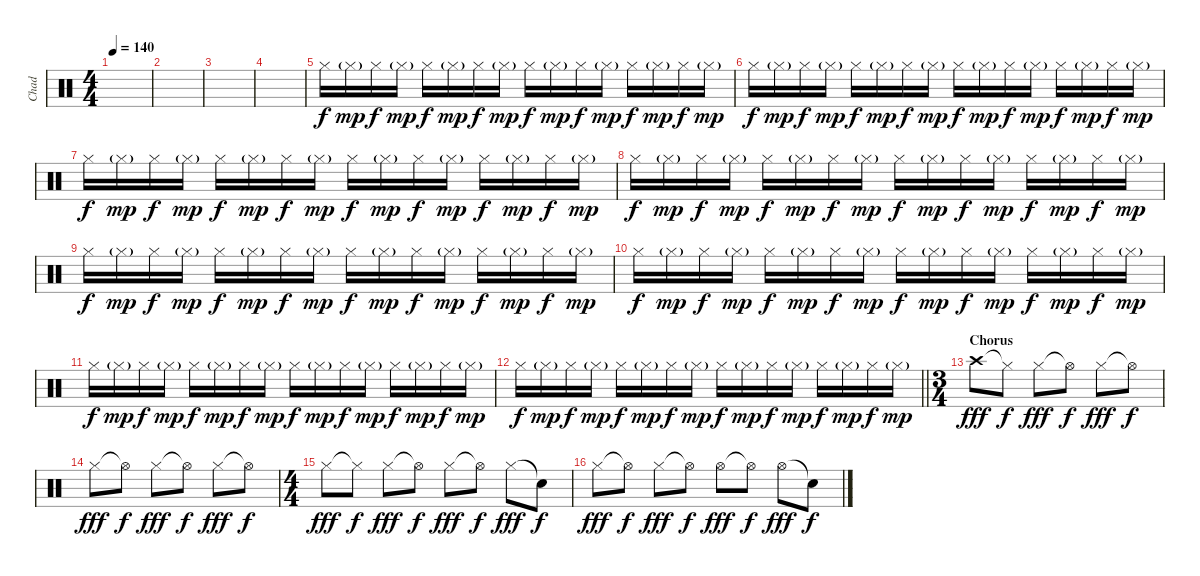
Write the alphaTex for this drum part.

\track ("Chad" "Chad") {instrument percussion}
\staff {score}
\articulation defaults
\ts (4 4)
\tempo 140
\clef neutral
\ks c
|
|
|
|
"Hi-Hat (closed)".16{dy f} "Hi-Hat (closed)"{g}.16{dy mp} "Hi-Hat (closed)".16{dy f} "Hi-Hat (closed)"{g}.16{dy mp} "Hi-Hat (closed)".16{dy f} "Hi-Hat (closed)"{g}.16{dy mp} "Hi-Hat (closed)".16{dy f} "Hi-Hat (closed)"{g}.16{dy mp} "Hi-Hat (closed)".16{dy f} "Hi-Hat (closed)"{g}.16{dy mp} "Hi-Hat (closed)".16{dy f} "Hi-Hat (closed)"{g}.16{dy mp} "Hi-Hat (closed)".16{dy f} "Hi-Hat (closed)"{g}.16{dy mp} "Hi-Hat (closed)".16{dy f} "Hi-Hat (closed)"{g}.16{dy mp} |
"Hi-Hat (closed)".16{dy f} "Hi-Hat (closed)"{g}.16{dy mp} "Hi-Hat (closed)".16{dy f} "Hi-Hat (closed)"{g}.16{dy mp} "Hi-Hat (closed)".16{dy f} "Hi-Hat (closed)"{g}.16{dy mp} "Hi-Hat (closed)".16{dy f} "Hi-Hat (closed)"{g}.16{dy mp} "Hi-Hat (closed)".16{dy f} "Hi-Hat (closed)"{g}.16{dy mp} "Hi-Hat (closed)".16{dy f} "Hi-Hat (closed)"{g}.16{dy mp} "Hi-Hat (closed)".16{dy f} "Hi-Hat (closed)"{g}.16{dy mp} "Hi-Hat (closed)".16{dy f} "Hi-Hat (closed)"{g}.16{dy mp} |
"Hi-Hat (closed)".16{dy f} "Hi-Hat (closed)"{g}.16{dy mp} "Hi-Hat (closed)".16{dy f} "Hi-Hat (closed)"{g}.16{dy mp} "Hi-Hat (closed)".16{dy f} "Hi-Hat (closed)"{g}.16{dy mp} "Hi-Hat (closed)".16{dy f} "Hi-Hat (closed)"{g}.16{dy mp} "Hi-Hat (closed)".16{dy f} "Hi-Hat (closed)"{g}.16{dy mp} "Hi-Hat (closed)".16{dy f} "Hi-Hat (closed)"{g}.16{dy mp} "Hi-Hat (closed)".16{dy f} "Hi-Hat (closed)"{g}.16{dy mp} "Hi-Hat (closed)".16{dy f} "Hi-Hat (closed)"{g}.16{dy mp} |
"Hi-Hat (closed)".16{dy f} "Hi-Hat (closed)"{g}.16{dy mp} "Hi-Hat (closed)".16{dy f} "Hi-Hat (closed)"{g}.16{dy mp} "Hi-Hat (closed)".16{dy f} "Hi-Hat (closed)"{g}.16{dy mp} "Hi-Hat (closed)".16{dy f} "Hi-Hat (closed)"{g}.16{dy mp} "Hi-Hat (closed)".16{dy f} "Hi-Hat (closed)"{g}.16{dy mp} "Hi-Hat (closed)".16{dy f} "Hi-Hat (closed)"{g}.16{dy mp} "Hi-Hat (closed)".16{dy f} "Hi-Hat (closed)"{g}.16{dy mp} "Hi-Hat (closed)".16{dy f} "Hi-Hat (closed)"{g}.16{dy mp} |
"Hi-Hat (closed)".16{dy f} "Hi-Hat (closed)"{g}.16{dy mp} "Hi-Hat (closed)".16{dy f} "Hi-Hat (closed)"{g}.16{dy mp} "Hi-Hat (closed)".16{dy f} "Hi-Hat (closed)"{g}.16{dy mp} "Hi-Hat (closed)".16{dy f} "Hi-Hat (closed)"{g}.16{dy mp} "Hi-Hat (closed)".16{dy f} "Hi-Hat (closed)"{g}.16{dy mp} "Hi-Hat (closed)".16{dy f} "Hi-Hat (closed)"{g}.16{dy mp} "Hi-Hat (closed)".16{dy f} "Hi-Hat (closed)"{g}.16{dy mp} "Hi-Hat (closed)".16{dy f} "Hi-Hat (closed)"{g}.16{dy mp} |
"Hi-Hat (closed)".16{dy f} "Hi-Hat (closed)"{g}.16{dy mp} "Hi-Hat (closed)".16{dy f} "Hi-Hat (closed)"{g}.16{dy mp} "Hi-Hat (closed)".16{dy f} "Hi-Hat (closed)"{g}.16{dy mp} "Hi-Hat (closed)".16{dy f} "Hi-Hat (closed)"{g}.16{dy mp} "Hi-Hat (closed)".16{dy f} "Hi-Hat (closed)"{g}.16{dy mp} "Hi-Hat (closed)".16{dy f} "Hi-Hat (closed)"{g}.16{dy mp} "Hi-Hat (closed)".16{dy f} "Hi-Hat (closed)"{g}.16{dy mp} "Hi-Hat (closed)".16{dy f} "Hi-Hat (closed)"{g}.16{dy mp} |
"Hi-Hat (closed)".16{dy f} "Hi-Hat (closed)"{g}.16{dy mp} "Hi-Hat (closed)".16{dy f} "Hi-Hat (closed)"{g}.16{dy mp} "Hi-Hat (closed)".16{dy f} "Hi-Hat (closed)"{g}.16{dy mp} "Hi-Hat (closed)".16{dy f} "Hi-Hat (closed)"{g}.16{dy mp} "Hi-Hat (closed)".16{dy f} "Hi-Hat (closed)"{g}.16{dy mp} "Hi-Hat (closed)".16{dy f} "Hi-Hat (closed)"{g}.16{dy mp} "Hi-Hat (closed)".16{dy f} "Hi-Hat (closed)"{g}.16{dy mp} "Hi-Hat (closed)".16{dy f} "Hi-Hat (closed)"{g}.16{dy mp} |
\barLineRight lightlight "Hi-Hat (closed)".16{dy f} "Hi-Hat (closed)"{g}.16{dy mp} "Hi-Hat (closed)".16{dy f} "Hi-Hat (closed)"{g}.16{dy mp} "Hi-Hat (closed)".16{dy f} "Hi-Hat (closed)"{g}.16{dy mp} "Hi-Hat (closed)".16{dy f} "Hi-Hat (closed)"{g}.16{dy mp} "Hi-Hat (closed)".16{dy f} "Hi-Hat (closed)"{g}.16{dy mp} "Hi-Hat (closed)".16{dy f} "Hi-Hat (closed)"{g}.16{dy mp} "Hi-Hat (closed)".16{dy f} "Hi-Hat (closed)"{g}.16{dy mp} "Hi-Hat (closed)".16{dy f} "Hi-Hat (closed)"{g}.16{dy mp}
|
\ts (3 4)
\section ("" "Chorus")
"Crash high (hit)".8{dy fff} "Hi-Hat (closed)"{t}.8{dy f} "Hi-Hat (closed)".8{dy fff} "Hi-Hat (open)"{t}.8{dy f} "Hi-Hat (closed)".8{dy fff} "Hi-Hat (open)"{t}.8{dy f} |
"Hi-Hat (closed)".8{dy fff} "Hi-Hat (open)"{t}.8{dy f} "Hi-Hat (closed)".8{dy fff} "Hi-Hat (open)"{t}.8{dy f} "Hi-Hat (closed)".8{dy fff} "Hi-Hat (open)"{t}.8{dy f} |
\ts (4 4)
"Hi-Hat (closed)".8{dy fff} "Hi-Hat (closed)"{t}.8{dy f} "Hi-Hat (closed)".8{dy fff} "Hi-Hat (open)"{t}.8{dy f} "Hi-Hat (closed)".8{dy fff} "Hi-Hat (open)"{t}.8{dy f} "Hi-Hat (closed)".8{dy fff} "Snare (hit)"{t}.8{dy f} |
"Hi-Hat (closed)".8{dy fff} "Hi-Hat (open)"{t}.8{dy f} "Hi-Hat (closed)".8{dy fff} "Hi-Hat (open)"{t}.8{dy f} "Hi-Hat (open)".8{dy fff} "Hi-Hat (open)"{t}.8{dy f} "Hi-Hat (open)".8{dy fff} "Snare (hit)"{t}.8{dy f}
